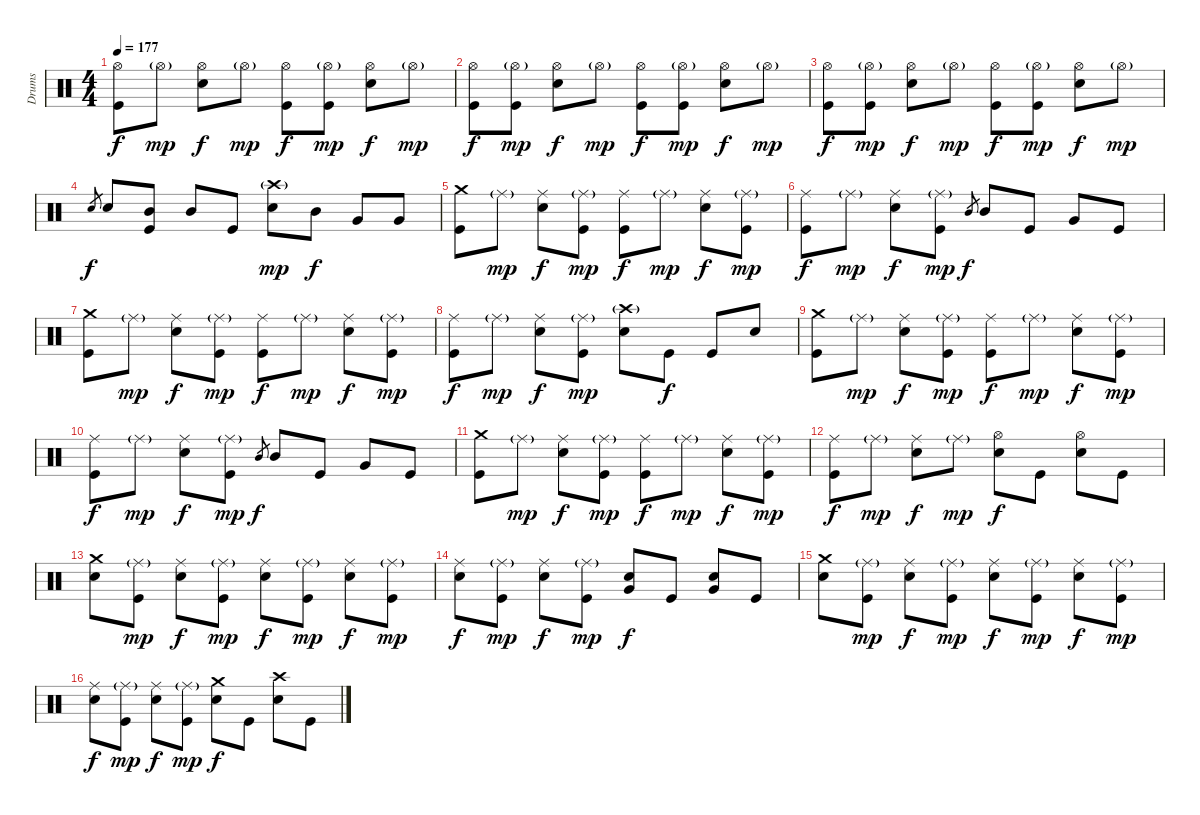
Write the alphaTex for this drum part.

\track ("Drums" "Drums") {instrument percussion}
\staff {score}
\articulation defaults
\ts (4 4)
\tempo 177
\clef neutral
\ks c
("Hi-Hat (open)" "Kick (hit)").8{dy f} "Hi-Hat (open)"{g}.8{dy mp} ("Hi-Hat (open)" "Electric Snare (hit)").8{dy f} "Hi-Hat (open)"{g}.8{dy mp} ("Hi-Hat (open)" "Kick (hit)").8{dy f} ("Hi-Hat (open)"{g} "Kick (hit)").8{dy mp} ("Hi-Hat (open)" "Electric Snare (hit)").8{dy f} "Hi-Hat (open)"{g}.8{dy mp} |
("Hi-Hat (open)" "Kick (hit)").8{dy f} ("Hi-Hat (open)"{g} "Kick (hit)").8{dy mp} ("Hi-Hat (open)" "Electric Snare (hit)").8{dy f} "Hi-Hat (open)"{g}.8{dy mp} ("Hi-Hat (open)" "Kick (hit)").8{dy f} ("Hi-Hat (open)"{g} "Kick (hit)").8{dy mp} ("Hi-Hat (open)" "Electric Snare (hit)").8{dy f} "Hi-Hat (open)"{g}.8{dy mp} |
("Hi-Hat (open)" "Kick (hit)").8{dy f} ("Hi-Hat (open)"{g} "Kick (hit)").8{dy mp} ("Hi-Hat (open)" "Electric Snare (hit)").8{dy f} "Hi-Hat (open)"{g}.8{dy mp} ("Hi-Hat (open)" "Kick (hit)").8{dy f} ("Hi-Hat (open)"{g} "Kick (hit)").8{dy mp} ("Hi-Hat (open)" "Electric Snare (hit)").8{dy f} "Hi-Hat (open)"{g}.8{dy mp} |
"Electric Snare (hit)".8{gr dy f} "Electric Snare (hit)".8 ("Mid Tom (hit)" "Kick (hit)").8 "Mid Tom (hit)".8 "Kick (hit)".8 ("Crash high (hit)"{g} "Electric Snare (hit)").8{dy mp} "Mid Tom (hit)".8{dy f} "Very Low Tom (hit)".8 "Very Low Tom (hit)".8 |
("Crash medium (hit)" "Kick (hit)").8 "Ride (middle)"{g}.8{dy mp} ("Ride (middle)" "Electric Snare (hit)").8{dy f} ("Ride (middle)"{g} "Kick (hit)").8{dy mp} ("Ride (middle)" "Kick (hit)").8{dy f} "Ride (middle)"{g}.8{dy mp} ("Ride (middle)" "Electric Snare (hit)").8{dy f} ("Ride (middle)"{g} "Kick (hit)").8{dy mp} |
("Ride (middle)" "Kick (hit)").8{dy f} "Ride (middle)"{g}.8{dy mp} ("Ride (middle)" "Electric Snare (hit)").8{dy f} ("Ride (middle)"{g} "Kick (hit)").8{dy mp} "Mid Tom (hit)".8{gr dy f} "Mid Tom (hit)".8 "Kick (hit)".8 "Very Low Tom (hit)".8 "Kick (hit)".8 |
("Crash medium (hit)" "Kick (hit)").8 "Ride (middle)"{g}.8{dy mp} ("Ride (middle)" "Electric Snare (hit)").8{dy f} ("Ride (middle)"{g} "Kick (hit)").8{dy mp} ("Ride (middle)" "Kick (hit)").8{dy f} "Ride (middle)"{g}.8{dy mp} ("Ride (middle)" "Electric Snare (hit)").8{dy f} ("Ride (middle)"{g} "Kick (hit)").8{dy mp} |
("Ride (middle)" "Kick (hit)").8{dy f} "Ride (middle)"{g}.8{dy mp} ("Ride (middle)" "Electric Snare (hit)").8{dy f} ("Ride (middle)"{g} "Kick (hit)").8{dy mp} ("Crash high (hit)"{g} "Electric Snare (hit)").8 "Kick (hit)".8{dy f} "Kick (hit)".8 "Electric Snare (hit)".8 |
("Crash medium (hit)" "Kick (hit)").8 "Ride (middle)"{g}.8{dy mp} ("Ride (middle)" "Electric Snare (hit)").8{dy f} ("Ride (middle)"{g} "Kick (hit)").8{dy mp} ("Ride (middle)" "Kick (hit)").8{dy f} "Ride (middle)"{g}.8{dy mp} ("Ride (middle)" "Electric Snare (hit)").8{dy f} ("Ride (middle)"{g} "Kick (hit)").8{dy mp} |
("Ride (middle)" "Kick (hit)").8{dy f} "Ride (middle)"{g}.8{dy mp} ("Ride (middle)" "Electric Snare (hit)").8{dy f} ("Ride (middle)"{g} "Kick (hit)").8{dy mp} "Mid Tom (hit)".8{gr dy f} "Mid Tom (hit)".8 "Kick (hit)".8 "Very Low Tom (hit)".8 "Kick (hit)".8 |
("Crash medium (hit)" "Kick (hit)").8 "Ride (middle)"{g}.8{dy mp} ("Ride (middle)" "Electric Snare (hit)").8{dy f} ("Ride (middle)"{g} "Kick (hit)").8{dy mp} ("Ride (middle)" "Kick (hit)").8{dy f} "Ride (middle)"{g}.8{dy mp} ("Ride (middle)" "Electric Snare (hit)").8{dy f} ("Ride (middle)"{g} "Kick (hit)").8{dy mp} |
("Ride (middle)" "Kick (hit)").8{dy f} "Ride (middle)"{g}.8{dy mp} ("Ride (middle)" "Electric Snare (hit)").8{dy f} "Ride (middle)"{g}.8{dy mp} ("Hi-Hat (open)" "Electric Snare (hit)").8{dy f} "Kick (hit)".8 ("Hi-Hat (open)" "Electric Snare (hit)").8 "Kick (hit)".8 |
("Crash medium (hit)" "Electric Snare (hit)").8 ("Ride (middle)"{g} "Kick (hit)").8{dy mp} ("Ride (middle)" "Electric Snare (hit)").8{dy f} ("Ride (middle)"{g} "Kick (hit)").8{dy mp} ("Ride (middle)" "Electric Snare (hit)").8{dy f} ("Ride (middle)"{g} "Kick (hit)").8{dy mp} ("Ride (middle)" "Electric Snare (hit)").8{dy f} ("Ride (middle)"{g} "Kick (hit)").8{dy mp} |
("Ride (middle)" "Electric Snare (hit)").8{dy f} ("Ride (middle)"{g} "Kick (hit)").8{dy mp} ("Ride (middle)" "Electric Snare (hit)").8{dy f} ("Ride (middle)"{g} "Kick (hit)").8{dy mp} ("Very Low Tom (hit)" "Electric Snare (hit)").8{dy f} "Kick (hit)".8 ("Very Low Tom (hit)" "Electric Snare (hit)").8 "Kick (hit)".8 |
("Crash medium (hit)" "Electric Snare (hit)").8 ("Ride (middle)"{g} "Kick (hit)").8{dy mp} ("Ride (middle)" "Electric Snare (hit)").8{dy f} ("Ride (middle)"{g} "Kick (hit)").8{dy mp} ("Ride (middle)" "Electric Snare (hit)").8{dy f} ("Ride (middle)"{g} "Kick (hit)").8{dy mp} ("Ride (middle)" "Electric Snare (hit)").8{dy f} ("Ride (middle)"{g} "Kick (hit)").8{dy mp} |
("Ride (middle)" "Electric Snare (hit)").8{dy f} ("Ride (middle)"{g} "Kick (hit)").8{dy mp} ("Ride (middle)" "Electric Snare (hit)").8{dy f} ("Ride (middle)"{g} "Kick (hit)").8{dy mp} ("Crash medium (hit)" "Electric Snare (hit)").8{dy f} "Kick (hit)".8 ("Crash high (hit)" "Electric Snare (hit)").8 "Kick (hit)".8
